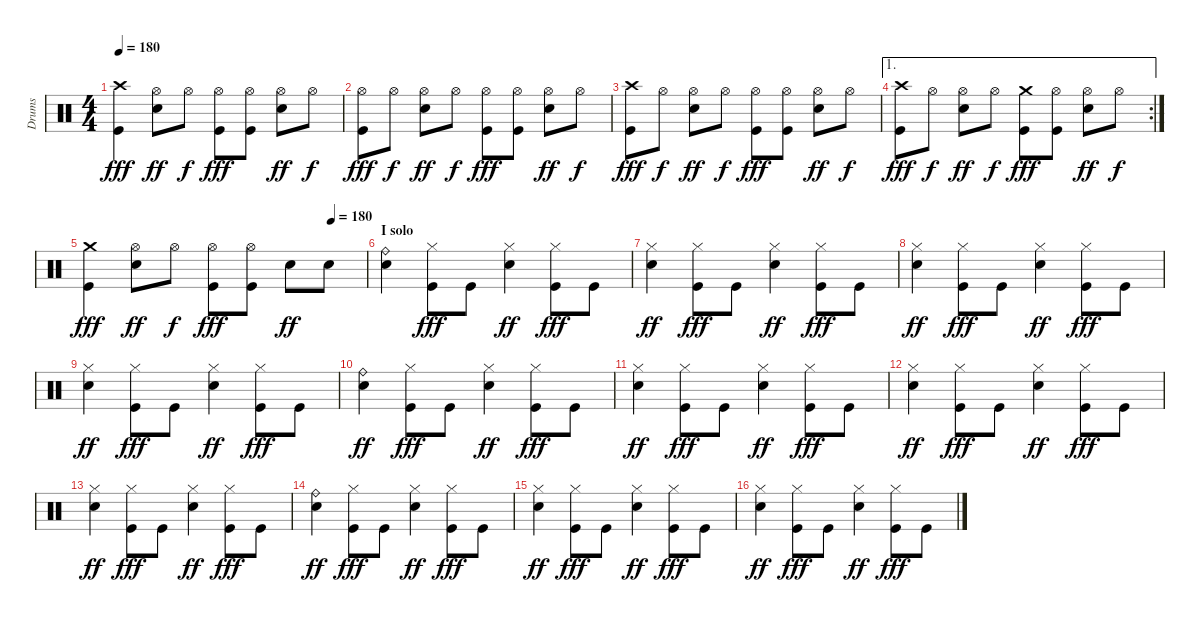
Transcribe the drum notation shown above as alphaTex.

\track ("Drums" "Drums") {instrument percussion}
\staff {score}
\articulation defaults
\ts (4 4)
\tempo 180
\clef neutral
\ks aminor
("Crash high (hit)" "Kick (hit)").4{dy fff} ("Hi-Hat (open)" "Snare (hit) 2").8{dy ff} "Hi-Hat (open)".8{dy f} ("Hi-Hat (open)" "Kick (hit)").8{dy fff} ("Hi-Hat (open)" "Kick (hit)").8 ("Hi-Hat (open)" "Snare (hit) 2").8{dy ff} "Hi-Hat (open)".8{dy f} |
("Hi-Hat (open)" "Kick (hit)").8{dy fff} "Hi-Hat (open)".8{dy f} ("Hi-Hat (open)" "Snare (hit) 2").8{dy ff} "Hi-Hat (open)".8{dy f} ("Hi-Hat (open)" "Kick (hit)").8{dy fff} ("Hi-Hat (open)" "Kick (hit)").8 ("Hi-Hat (open)" "Snare (hit) 2").8{dy ff} "Hi-Hat (open)".8{dy f} |
("Crash high (hit)" "Kick (hit)").8{dy fff} "Hi-Hat (open)".8{dy f} ("Hi-Hat (open)" "Snare (hit) 2").8{dy ff} "Hi-Hat (open)".8{dy f} ("Hi-Hat (open)" "Kick (hit)").8{dy fff} ("Hi-Hat (open)" "Kick (hit)").8 ("Hi-Hat (open)" "Snare (hit) 2").8{dy ff} "Hi-Hat (open)".8{dy f} |
\ae 1
\rc 2
("Crash high (hit)" "Kick (hit)").8{dy fff} "Hi-Hat (open)".8{dy f} ("Hi-Hat (open)" "Snare (hit) 2").8{dy ff} "Hi-Hat (open)".8{dy f} ("Crash medium (hit)" "Kick (hit)").8{dy fff} ("Hi-Hat (open)" "Kick (hit)").8 ("Hi-Hat (open)" "Snare (hit) 2").8{dy ff} "Hi-Hat (open)".8{dy f} |
\tempo (180 0.875)
("Crash medium (hit)" "Kick (hit)").4{dy fff} ("Hi-Hat (open)" "Snare (hit) 2").8{dy ff} "Hi-Hat (open)".8{dy f} ("Hi-Hat (open)" "Kick (hit)").8{dy fff} ("Hi-Hat (open)" "Kick (hit)").8 "Snare (hit) 2".8{dy ff} "Snare (hit) 2".8 |
\section ("" "I solo")
("Ride (bell)" "Snare (hit) 2").4 ("Hi-Hat (closed)" "Kick (hit)").8{dy fff} "Kick (hit)".8 ("Hi-Hat (closed)" "Snare (hit) 2").4{dy ff} ("Hi-Hat (closed)" "Kick (hit)").8{dy fff} "Kick (hit)".8 |
("Hi-Hat (closed)" "Snare (hit) 2").4{dy ff} ("Hi-Hat (closed)" "Kick (hit)").8{dy fff} "Kick (hit)".8 ("Hi-Hat (closed)" "Snare (hit) 2").4{dy ff} ("Hi-Hat (closed)" "Kick (hit)").8{dy fff} "Kick (hit)".8 |
("Hi-Hat (closed)" "Snare (hit) 2").4{dy ff} ("Hi-Hat (closed)" "Kick (hit)").8{dy fff} "Kick (hit)".8 ("Hi-Hat (closed)" "Snare (hit) 2").4{dy ff} ("Hi-Hat (closed)" "Kick (hit)").8{dy fff} "Kick (hit)".8 |
("Hi-Hat (closed)" "Snare (hit) 2").4{dy ff} ("Hi-Hat (closed)" "Kick (hit)").8{dy fff} "Kick (hit)".8 ("Hi-Hat (closed)" "Snare (hit) 2").4{dy ff} ("Hi-Hat (closed)" "Kick (hit)").8{dy fff} "Kick (hit)".8 |
("Ride (bell)" "Snare (hit) 2").4{dy ff} ("Hi-Hat (closed)" "Kick (hit)").8{dy fff} "Kick (hit)".8 ("Hi-Hat (closed)" "Snare (hit) 2").4{dy ff} ("Hi-Hat (closed)" "Kick (hit)").8{dy fff} "Kick (hit)".8 |
("Hi-Hat (closed)" "Snare (hit) 2").4{dy ff} ("Hi-Hat (closed)" "Kick (hit)").8{dy fff} "Kick (hit)".8 ("Hi-Hat (closed)" "Snare (hit) 2").4{dy ff} ("Hi-Hat (closed)" "Kick (hit)").8{dy fff} "Kick (hit)".8 |
("Hi-Hat (closed)" "Snare (hit) 2").4{dy ff} ("Hi-Hat (closed)" "Kick (hit)").8{dy fff} "Kick (hit)".8 ("Hi-Hat (closed)" "Snare (hit) 2").4{dy ff} ("Hi-Hat (closed)" "Kick (hit)").8{dy fff} "Kick (hit)".8 |
("Hi-Hat (closed)" "Snare (hit) 2").4{dy ff} ("Hi-Hat (closed)" "Kick (hit)").8{dy fff} "Kick (hit)".8 ("Hi-Hat (closed)" "Snare (hit) 2").4{dy ff} ("Hi-Hat (closed)" "Kick (hit)").8{dy fff} "Kick (hit)".8 |
("Ride (bell)" "Snare (hit) 2").4{dy ff} ("Hi-Hat (closed)" "Kick (hit)").8{dy fff} "Kick (hit)".8 ("Hi-Hat (closed)" "Snare (hit) 2").4{dy ff} ("Hi-Hat (closed)" "Kick (hit)").8{dy fff} "Kick (hit)".8 |
("Hi-Hat (closed)" "Snare (hit) 2").4{dy ff} ("Hi-Hat (closed)" "Kick (hit)").8{dy fff} "Kick (hit)".8 ("Hi-Hat (closed)" "Snare (hit) 2").4{dy ff} ("Hi-Hat (closed)" "Kick (hit)").8{dy fff} "Kick (hit)".8 |
("Hi-Hat (closed)" "Snare (hit) 2").4{dy ff} ("Hi-Hat (closed)" "Kick (hit)").8{dy fff} "Kick (hit)".8 ("Hi-Hat (closed)" "Snare (hit) 2").4{dy ff} ("Hi-Hat (closed)" "Kick (hit)").8{dy fff} "Kick (hit)".8
